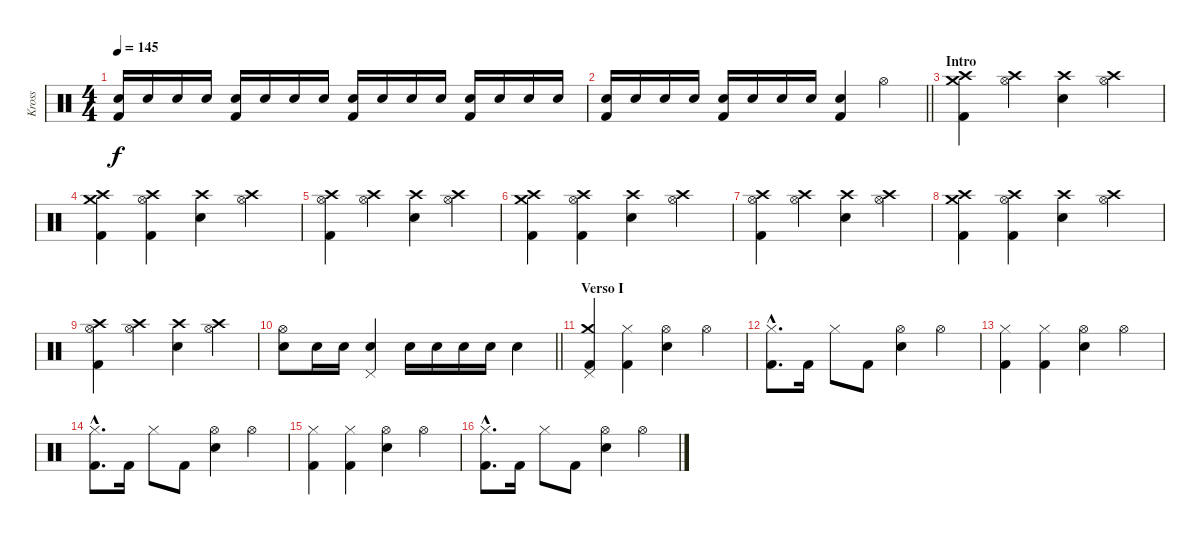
\track ("Kross" "Kross") {instrument percussion}
\staff {score}
\articulation defaults
\ts (4 4)
\tempo 145
\clef neutral
\ks c
("Electric Snare (hit)" "Kick (hit) 2").16{dy f volume 16} "Electric Snare (hit)".16 "Electric Snare (hit)".16 "Electric Snare (hit)".16 ("Electric Snare (hit)" "Kick (hit) 2").16 "Electric Snare (hit)".16 "Electric Snare (hit)".16 "Electric Snare (hit)".16 ("Electric Snare (hit)" "Kick (hit) 2").16 "Electric Snare (hit)".16 "Electric Snare (hit)".16 "Electric Snare (hit)".16 ("Electric Snare (hit)" "Kick (hit) 2").16 "Electric Snare (hit)".16 "Electric Snare (hit)".16 "Electric Snare (hit)".16 |
\barLineRight lightlight
("Electric Snare (hit)" "Kick (hit) 2").16 "Electric Snare (hit)".16 "Electric Snare (hit)".16 "Electric Snare (hit)".16 ("Electric Snare (hit)" "Kick (hit) 2").16 "Electric Snare (hit)".16 "Electric Snare (hit)".16 "Electric Snare (hit)".16 ("Electric Snare (hit)" "Kick (hit) 2").4 "Hi-Hat (open)".4 |
\section ("" "Intro")
("Crash medium (hit)" "Crash high (hit)" "Kick (hit) 2").4 ("Crash high (hit)" "Hi-Hat (open)").4 ("Crash high (hit)" "Electric Snare (hit)").4 ("Crash high (hit)" "Hi-Hat (open)").4 |
("Crash medium (hit)" "Crash high (hit)" "Kick (hit) 2").4 ("Crash high (hit)" "Hi-Hat (open)" "Kick (hit) 2").4 ("Crash high (hit)" "Electric Snare (hit)").4 ("Crash high (hit)" "Hi-Hat (open)").4 |
("Crash high (hit)" "Hi-Hat (open)" "Kick (hit) 2").4 ("Crash high (hit)" "Hi-Hat (open)").4 ("Crash high (hit)" "Electric Snare (hit)").4 ("Crash high (hit)" "Hi-Hat (open)").4 |
("Crash medium (hit)" "Crash high (hit)" "Kick (hit) 2").4 ("Crash high (hit)" "Hi-Hat (open)" "Kick (hit) 2").4 ("Crash high (hit)" "Electric Snare (hit)").4 ("Crash high (hit)" "Hi-Hat (open)").4 |
("Crash high (hit)" "Hi-Hat (open)" "Kick (hit) 2").4 ("Crash high (hit)" "Hi-Hat (open)").4 ("Crash high (hit)" "Electric Snare (hit)").4 ("Crash high (hit)" "Hi-Hat (open)").4 |
("Crash medium (hit)" "Crash high (hit)" "Kick (hit) 2").4 ("Crash high (hit)" "Hi-Hat (open)" "Kick (hit) 2").4 ("Crash high (hit)" "Electric Snare (hit)").4 ("Crash high (hit)" "Hi-Hat (open)").4 |
("Crash high (hit)" "Hi-Hat (open)" "Kick (hit) 2").4 ("Crash high (hit)" "Hi-Hat (open)").4 ("Crash high (hit)" "Electric Snare (hit)").4 ("Crash high (hit)" "Hi-Hat (open)").4 |
\barLineRight lightlight
("Hi-Hat (open)" "Electric Snare (hit)").8 "Electric Snare (hit)".16 "Electric Snare (hit)".16 ("Pedal Hi-Hat (hit)" "Electric Snare (hit)").4 "Electric Snare (hit)".16 "Electric Snare (hit)".16 "Electric Snare (hit)".16 "Electric Snare (hit)".16 "Electric Snare (hit)".4 |
\section ("" "Verso I")
("Crash medium (hit)" "Pedal Hi-Hat (hit)" "Kick (hit) 2").4 ("Hi-Hat (closed)" "Kick (hit) 2").4 ("Hi-Hat (open)" "Electric Snare (hit)").4 "Hi-Hat (open)".4 |
("Hi-Hat (closed)"{hac} "Kick (hit) 2"{hac}).8{d} "Kick (hit) 2".16 "Hi-Hat (closed)".8 "Kick (hit) 2".8 ("Hi-Hat (open)" "Electric Snare (hit)").4 "Hi-Hat (open)".4 |
("Hi-Hat (closed)" "Kick (hit) 2").4 ("Hi-Hat (closed)" "Kick (hit) 2").4 ("Hi-Hat (open)" "Electric Snare (hit)").4 "Hi-Hat (open)".4 |
("Hi-Hat (closed)"{hac} "Kick (hit) 2"{hac}).8{d} "Kick (hit) 2".16 "Hi-Hat (closed)".8 "Kick (hit) 2".8 ("Hi-Hat (open)" "Electric Snare (hit)").4 "Hi-Hat (open)".4 |
("Hi-Hat (closed)" "Kick (hit) 2").4 ("Hi-Hat (closed)" "Kick (hit) 2").4 ("Hi-Hat (open)" "Electric Snare (hit)").4 "Hi-Hat (open)".4 |
("Hi-Hat (closed)"{hac} "Kick (hit) 2"{hac}).8{d} "Kick (hit) 2".16 "Hi-Hat (closed)".8 "Kick (hit) 2".8 ("Hi-Hat (open)" "Electric Snare (hit)").4 "Hi-Hat (open)".4
